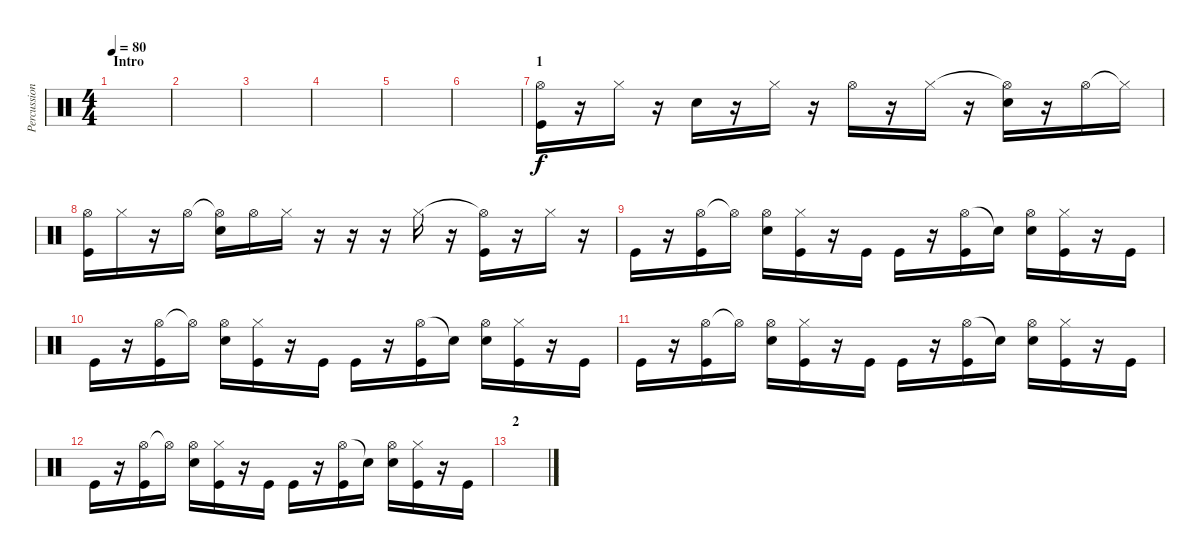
\track ("Percussions" "Percussion") {instrument percussion}
\staff {score}
\articulation defaults
\ts (4 4)
\section ("" "Intro")
\tempo 80
\clef neutral
\ks c
|
|
|
|
|
|
\section ("" "1")
("Hi-Hat (open)" "Kick (hit)").16 r.16 "Hi-Hat (closed)".16 r.16 "Electric Snare (hit)".16 r.16 "Hi-Hat (closed)".16 r.16 "Hi-Hat (open)".16 r.16 "Hi-Hat (closed)".16 r.16 ("Hi-Hat (open)"{t} "Electric Snare (hit)").16 r.16 "Hi-Hat (open)".16 "Hi-Hat (closed)"{t}.16 |
("Hi-Hat (open)" "Kick (hit)").16 "Hi-Hat (closed)".16 r.16 "Hi-Hat (open)".16 ("Hi-Hat (open)"{t} "Electric Snare (hit)").16 "Hi-Hat (open)".16 "Hi-Hat (closed)".16 r.16 r.16 r.16 "Hi-Hat (closed)".16 r.16 ("Hi-Hat (open)"{t} "Kick (hit)").16 r.16 "Hi-Hat (closed)".16 r.16 |
"Kick (hit)".16 r.16 ("Hi-Hat (open)" "Kick (hit)").16 "Hi-Hat (open)"{t}.16 ("Hi-Hat (open)" "Electric Snare (hit)").16 ("Hi-Hat (closed)" "Kick (hit)").16 r.16 "Kick (hit)".16 "Kick (hit)".16 r.16 ("Hi-Hat (open)" "Kick (hit)").16 "Snare (hit)"{t}.16 ("Hi-Hat (open)" "Electric Snare (hit)").16 ("Hi-Hat (closed)" "Kick (hit)").16 r.16 "Kick (hit)".16 |
"Kick (hit)".16 r.16 ("Hi-Hat (open)" "Kick (hit)").16 "Hi-Hat (open)"{t}.16 ("Hi-Hat (open)" "Electric Snare (hit)").16 ("Hi-Hat (closed)" "Kick (hit)").16 r.16 "Kick (hit)".16 "Kick (hit)".16 r.16 ("Hi-Hat (open)" "Kick (hit)").16 "Snare (hit)"{t}.16 ("Hi-Hat (open)" "Electric Snare (hit)").16 ("Hi-Hat (closed)" "Kick (hit)").16 r.16 "Kick (hit)".16 |
"Kick (hit)".16 r.16 ("Hi-Hat (open)" "Kick (hit)").16 "Hi-Hat (open)"{t}.16 ("Hi-Hat (open)" "Electric Snare (hit)").16 ("Hi-Hat (closed)" "Kick (hit)").16 r.16 "Kick (hit)".16 "Kick (hit)".16 r.16 ("Hi-Hat (open)" "Kick (hit)").16 "Snare (hit)"{t}.16 ("Hi-Hat (open)" "Electric Snare (hit)").16 ("Hi-Hat (closed)" "Kick (hit)").16 r.16 "Kick (hit)".16 |
"Kick (hit)".16 r.16 ("Hi-Hat (open)" "Kick (hit)").16 "Hi-Hat (open)"{t}.16 ("Hi-Hat (open)" "Electric Snare (hit)").16 ("Hi-Hat (closed)" "Kick (hit)").16 r.16 "Kick (hit)".16 "Kick (hit)".16 r.16 ("Hi-Hat (open)" "Kick (hit)").16 "Snare (hit)"{t}.16 ("Hi-Hat (open)" "Electric Snare (hit)").16 ("Hi-Hat (closed)" "Kick (hit)").16 r.16 "Kick (hit)".16 |
\section ("" "2")
